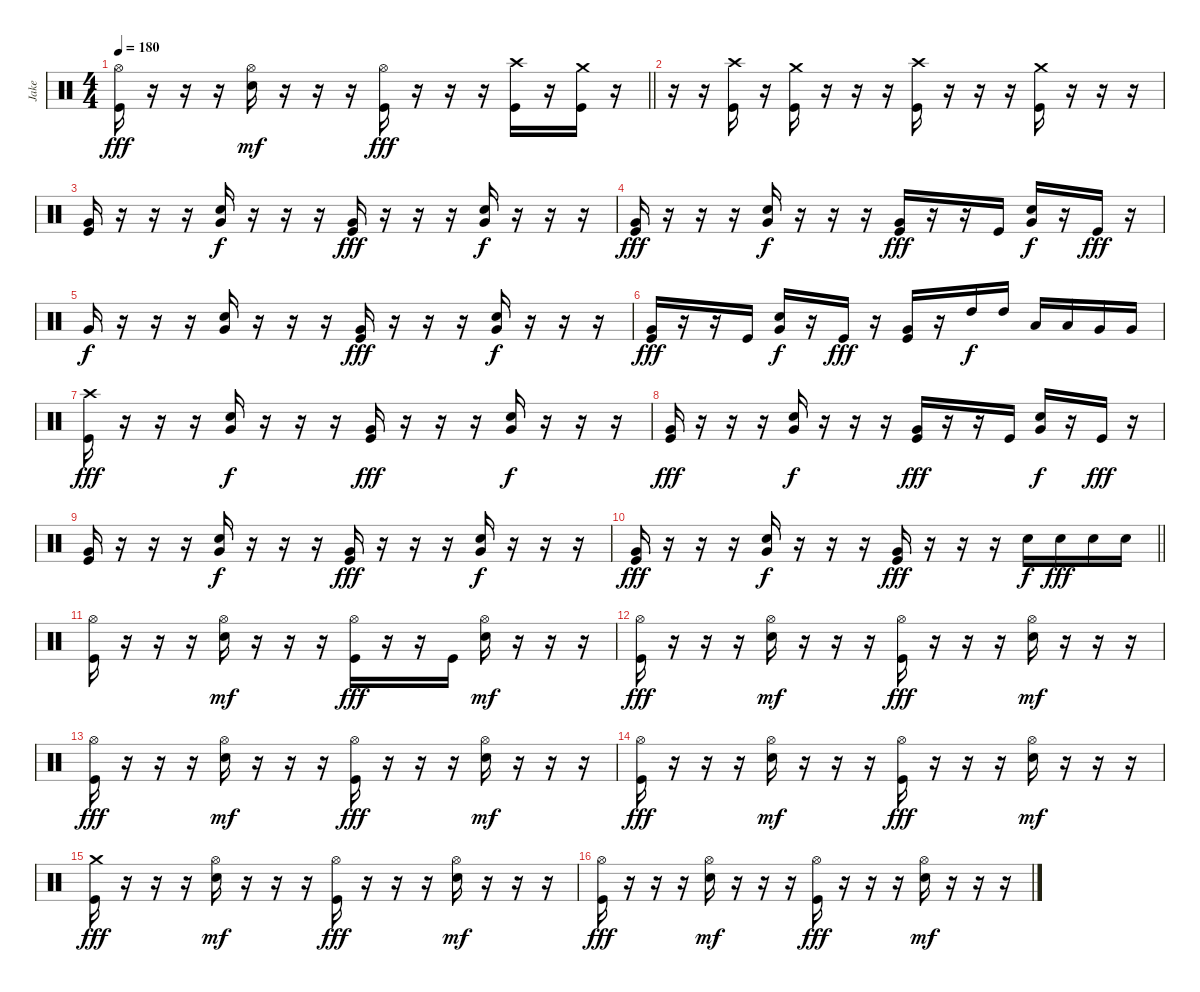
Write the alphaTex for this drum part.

\track ("Jake" "Jake") {instrument percussion}
\staff {score}
\articulation defaults
\ts (4 4)
\tempo 180
\clef neutral
\barLineRight lightlight
\ks c
("Hi-Hat (open)" "Kick (hit)").16{dy fff} r.16 r.16 r.16 ("Hi-Hat (open)" "Electric Snare (hit)").16{dy mf} r.16 r.16 r.16 ("Hi-Hat (open)" "Kick (hit)").16{dy fff} r.16 r.16 r.16 ("Crash high (hit)" "Kick (hit)").16 r.16 ("Crash medium (hit)" "Kick (hit)").16 r.16 |
r.16 r.16 ("Crash high (hit)" "Kick (hit)").16 r.16 ("Crash medium (hit)" "Kick (hit)").16 r.16 r.16 r.16 ("Crash high (hit)" "Kick (hit)").16 r.16 r.16 r.16 ("Crash medium (hit)" "Kick (hit)").16 r.16 r.16 r.16 |
("Very Low Tom (hit)" "Kick (hit)").16 r.16 r.16 r.16 ("Very Low Tom (hit)" "Electric Snare (hit)").16{dy f} r.16 r.16 r.16 ("Very Low Tom (hit)" "Kick (hit)").16{dy fff} r.16 r.16 r.16 ("Very Low Tom (hit)" "Electric Snare (hit)").16{dy f} r.16 r.16 r.16 |
("Very Low Tom (hit)" "Kick (hit)").16{dy fff} r.16 r.16 r.16 ("Very Low Tom (hit)" "Electric Snare (hit)").16{dy f} r.16 r.16 r.16 ("Very Low Tom (hit)" "Kick (hit)").16{dy fff} r.16 r.16 "Kick (hit)".16 ("Very Low Tom (hit)" "Electric Snare (hit)").16{dy f} r.16 "Kick (hit)".16{dy fff} r.16 |
"Very Low Tom (hit)".16{dy f} r.16 r.16 r.16 ("Very Low Tom (hit)" "Electric Snare (hit)").16 r.16 r.16 r.16 ("Very Low Tom (hit)" "Kick (hit)").16{dy fff} r.16 r.16 r.16 ("Very Low Tom (hit)" "Electric Snare (hit)").16{dy f} r.16 r.16 r.16 |
("Very Low Tom (hit)" "Kick (hit)").16{dy fff} r.16 r.16 "Kick (hit)".16 ("Very Low Tom (hit)" "Electric Snare (hit)").16{dy f} r.16 "Kick (hit)".16{dy fff} r.16 ("Very Low Tom (hit)" "Kick (hit)").16 r.16 "High Tom (hit)".16{dy f} "High Tom (hit)".16 "Low Tom (hit)".16 "Low Tom (hit)".16 "Very Low Tom (hit)".16 "Very Low Tom (hit)".16 |
("Crash high (hit)" "Kick (hit)").16{dy fff} r.16 r.16 r.16 ("Very Low Tom (hit)" "Electric Snare (hit)").16{dy f} r.16 r.16 r.16 ("Very Low Tom (hit)" "Kick (hit)").16{dy fff} r.16 r.16 r.16 ("Very Low Tom (hit)" "Electric Snare (hit)").16{dy f} r.16 r.16 r.16 |
("Very Low Tom (hit)" "Kick (hit)").16{dy fff} r.16 r.16 r.16 ("Very Low Tom (hit)" "Electric Snare (hit)").16{dy f} r.16 r.16 r.16 ("Very Low Tom (hit)" "Kick (hit)").16{dy fff} r.16 r.16 "Kick (hit)".16 ("Very Low Tom (hit)" "Electric Snare (hit)").16{dy f} r.16 "Kick (hit)".16{dy fff} r.16 |
("Very Low Tom (hit)" "Kick (hit)").16 r.16 r.16 r.16 ("Very Low Tom (hit)" "Electric Snare (hit)").16{dy f} r.16 r.16 r.16 ("Very Low Tom (hit)" "Kick (hit)").16{dy fff} r.16 r.16 r.16 ("Very Low Tom (hit)" "Electric Snare (hit)").16{dy f} r.16 r.16 r.16 |
\barLineRight lightlight
("Very Low Tom (hit)" "Kick (hit)").16{dy fff} r.16 r.16 r.16 ("Very Low Tom (hit)" "Electric Snare (hit)").16{dy f} r.16 r.16 r.16 ("Very Low Tom (hit)" "Kick (hit)").16{dy fff} r.16 r.16 r.16 "Electric Snare (hit)".16{dy f} "Electric Snare (hit)".16{dy fff} "Electric Snare (hit)".16 "Electric Snare (hit)".16 |
("Hi-Hat (open)" "Kick (hit)").16 r.16 r.16 r.16 ("Hi-Hat (open)" "Electric Snare (hit)").16{dy mf} r.16 r.16 r.16 ("Hi-Hat (open)" "Kick (hit)").16{dy fff} r.16 r.16 "Kick (hit)".16 ("Hi-Hat (open)" "Electric Snare (hit)").16{dy mf} r.16 r.16 r.16 |
("Hi-Hat (open)" "Kick (hit)").16{dy fff} r.16 r.16 r.16 ("Hi-Hat (open)" "Electric Snare (hit)").16{dy mf} r.16 r.16 r.16 ("Hi-Hat (open)" "Kick (hit)").16{dy fff} r.16 r.16 r.16 ("Hi-Hat (open)" "Electric Snare (hit)").16{dy mf} r.16 r.16 r.16 |
("Hi-Hat (open)" "Kick (hit)").16{dy fff} r.16 r.16 r.16 ("Hi-Hat (open)" "Electric Snare (hit)").16{dy mf} r.16 r.16 r.16 ("Hi-Hat (open)" "Kick (hit)").16{dy fff} r.16 r.16 r.16 ("Hi-Hat (open)" "Electric Snare (hit)").16{dy mf} r.16 r.16 r.16 |
("Hi-Hat (open)" "Kick (hit)").16{dy fff} r.16 r.16 r.16 ("Hi-Hat (open)" "Electric Snare (hit)").16{dy mf} r.16 r.16 r.16 ("Hi-Hat (open)" "Kick (hit)").16{dy fff} r.16 r.16 r.16 ("Hi-Hat (open)" "Electric Snare (hit)").16{dy mf} r.16 r.16 r.16 |
("Crash medium (hit)" "Kick (hit)").16{dy fff} r.16 r.16 r.16 ("Hi-Hat (open)" "Electric Snare (hit)").16{dy mf} r.16 r.16 r.16 ("Hi-Hat (open)" "Kick (hit)").16{dy fff} r.16 r.16 r.16 ("Hi-Hat (open)" "Electric Snare (hit)").16{dy mf} r.16 r.16 r.16 |
("Hi-Hat (open)" "Kick (hit)").16{dy fff} r.16 r.16 r.16 ("Hi-Hat (open)" "Electric Snare (hit)").16{dy mf} r.16 r.16 r.16 ("Hi-Hat (open)" "Kick (hit)").16{dy fff} r.16 r.16 r.16 ("Hi-Hat (open)" "Electric Snare (hit)").16{dy mf} r.16 r.16 r.16
